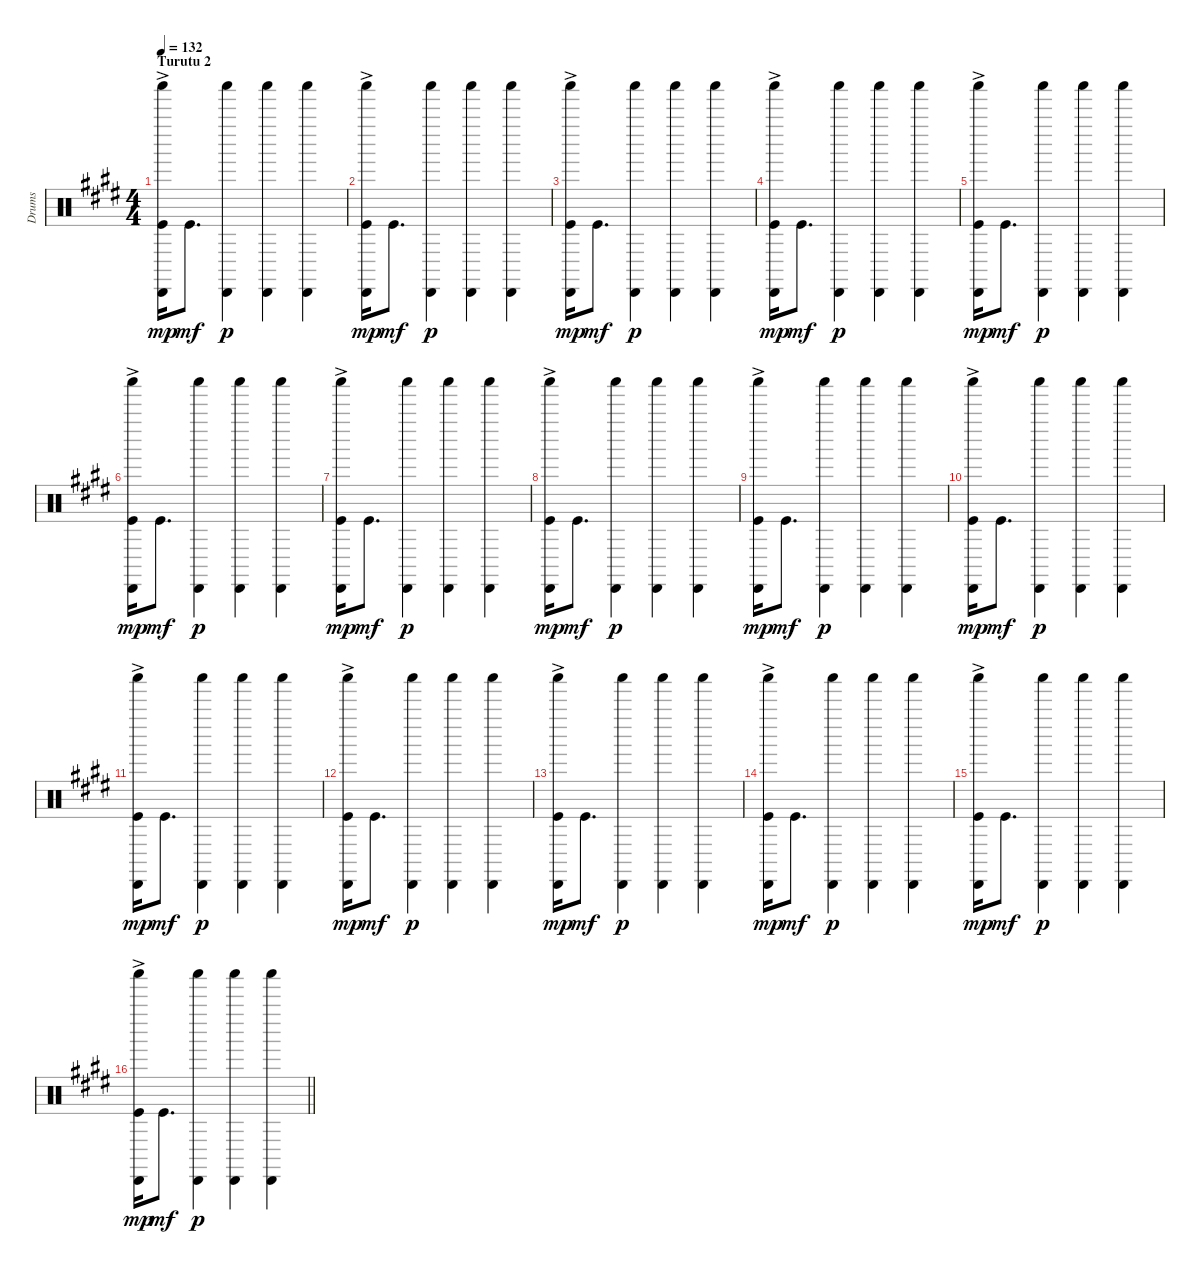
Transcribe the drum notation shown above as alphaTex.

\track ("Drums" "Drums") {instrument percussion}
\staff {score}
\articulation defaults
\ts (4 4)
\section ("" "Turutu 2")
\tempo 132
\clef neutral
\ks e
("Shaker (hit)" "Cabasa (hit)"{ac} "Kick (hit)").16{dy mp} "Kick (hit)".8{d dy mf} ("Shaker (hit)" "Cabasa (hit)").4{dy p} ("Shaker (hit)" "Cabasa (hit)").4 ("Shaker (hit)" "Cabasa (hit)").4 |
("Shaker (hit)" "Cabasa (hit)"{ac} "Kick (hit)").16{dy mp} "Kick (hit)".8{d dy mf} ("Shaker (hit)" "Cabasa (hit)").4{dy p} ("Shaker (hit)" "Cabasa (hit)").4 ("Shaker (hit)" "Cabasa (hit)").4 |
("Shaker (hit)" "Cabasa (hit)"{ac} "Kick (hit)").16{dy mp} "Kick (hit)".8{d dy mf} ("Shaker (hit)" "Cabasa (hit)").4{dy p} ("Shaker (hit)" "Cabasa (hit)").4 ("Shaker (hit)" "Cabasa (hit)").4 |
("Shaker (hit)" "Cabasa (hit)"{ac} "Kick (hit)").16{dy mp} "Kick (hit)".8{d dy mf} ("Shaker (hit)" "Cabasa (hit)").4{dy p} ("Shaker (hit)" "Cabasa (hit)").4 ("Shaker (hit)" "Cabasa (hit)").4 |
("Shaker (hit)" "Cabasa (hit)"{ac} "Kick (hit)").16{dy mp} "Kick (hit)".8{d dy mf} ("Shaker (hit)" "Cabasa (hit)").4{dy p} ("Shaker (hit)" "Cabasa (hit)").4 ("Shaker (hit)" "Cabasa (hit)").4 |
("Shaker (hit)" "Cabasa (hit)"{ac} "Kick (hit)").16{dy mp} "Kick (hit)".8{d dy mf} ("Shaker (hit)" "Cabasa (hit)").4{dy p} ("Shaker (hit)" "Cabasa (hit)").4 ("Shaker (hit)" "Cabasa (hit)").4 |
("Shaker (hit)" "Cabasa (hit)"{ac} "Kick (hit)").16{dy mp} "Kick (hit)".8{d dy mf} ("Shaker (hit)" "Cabasa (hit)").4{dy p} ("Shaker (hit)" "Cabasa (hit)").4 ("Shaker (hit)" "Cabasa (hit)").4 |
("Shaker (hit)" "Cabasa (hit)"{ac} "Kick (hit)").16{dy mp} "Kick (hit)".8{d dy mf} ("Shaker (hit)" "Cabasa (hit)").4{dy p} ("Shaker (hit)" "Cabasa (hit)").4 ("Shaker (hit)" "Cabasa (hit)").4 |
("Shaker (hit)" "Cabasa (hit)"{ac} "Kick (hit)").16{dy mp} "Kick (hit)".8{d dy mf} ("Shaker (hit)" "Cabasa (hit)").4{dy p} ("Shaker (hit)" "Cabasa (hit)").4 ("Shaker (hit)" "Cabasa (hit)").4 |
("Shaker (hit)" "Cabasa (hit)"{ac} "Kick (hit)").16{dy mp} "Kick (hit)".8{d dy mf} ("Shaker (hit)" "Cabasa (hit)").4{dy p} ("Shaker (hit)" "Cabasa (hit)").4 ("Shaker (hit)" "Cabasa (hit)").4 |
("Shaker (hit)" "Cabasa (hit)"{ac} "Kick (hit)").16{dy mp} "Kick (hit)".8{d dy mf} ("Shaker (hit)" "Cabasa (hit)").4{dy p} ("Shaker (hit)" "Cabasa (hit)").4 ("Shaker (hit)" "Cabasa (hit)").4 |
("Shaker (hit)" "Cabasa (hit)"{ac} "Kick (hit)").16{dy mp} "Kick (hit)".8{d dy mf} ("Shaker (hit)" "Cabasa (hit)").4{dy p} ("Shaker (hit)" "Cabasa (hit)").4 ("Shaker (hit)" "Cabasa (hit)").4 |
("Shaker (hit)" "Cabasa (hit)"{ac} "Kick (hit)").16{dy mp} "Kick (hit)".8{d dy mf} ("Shaker (hit)" "Cabasa (hit)").4{dy p} ("Shaker (hit)" "Cabasa (hit)").4 ("Shaker (hit)" "Cabasa (hit)").4 |
("Shaker (hit)" "Cabasa (hit)"{ac} "Kick (hit)").16{dy mp} "Kick (hit)".8{d dy mf} ("Shaker (hit)" "Cabasa (hit)").4{dy p} ("Shaker (hit)" "Cabasa (hit)").4 ("Shaker (hit)" "Cabasa (hit)").4 |
("Shaker (hit)" "Cabasa (hit)"{ac} "Kick (hit)").16{dy mp} "Kick (hit)".8{d dy mf} ("Shaker (hit)" "Cabasa (hit)").4{dy p} ("Shaker (hit)" "Cabasa (hit)").4 ("Shaker (hit)" "Cabasa (hit)").4 |
\barLineRight lightlight
("Shaker (hit)" "Cabasa (hit)"{ac} "Kick (hit)").16{dy mp} "Kick (hit)".8{d dy mf} ("Shaker (hit)" "Cabasa (hit)").4{dy p} ("Shaker (hit)" "Cabasa (hit)").4 ("Shaker (hit)" "Cabasa (hit)").4
